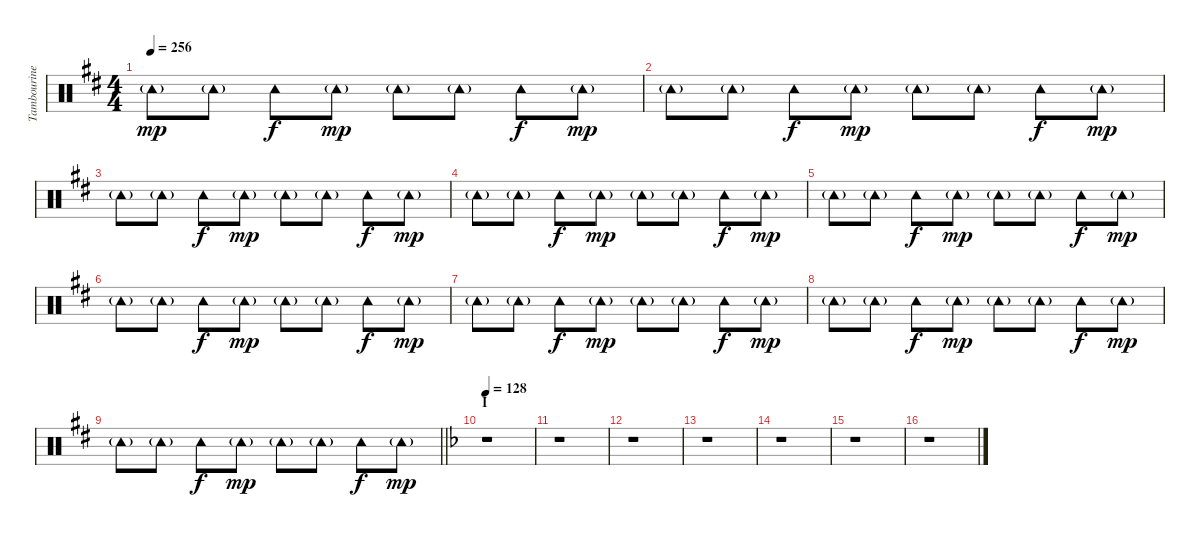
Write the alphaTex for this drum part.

\track ("Tambourine" "Tambourine") {instrument percussion}
\staff {score}
\articulation defaults
\ts (4 4)
\tempo 256
\clef neutral
\ks d "Tambourine (hit)"{g}.8{dy mp} "Tambourine (hit)"{g}.8 "Tambourine (hit)".8{dy f} "Tambourine (hit)"{g}.8{dy mp} "Tambourine (hit)"{g}.8 "Tambourine (hit)"{g}.8 "Tambourine (hit)".8{dy f} "Tambourine (hit)"{g}.8{dy mp}
|
"Tambourine (hit)"{g}.8 "Tambourine (hit)"{g}.8 "Tambourine (hit)".8{dy f} "Tambourine (hit)"{g}.8{dy mp} "Tambourine (hit)"{g}.8 "Tambourine (hit)"{g}.8 "Tambourine (hit)".8{dy f} "Tambourine (hit)"{g}.8{dy mp} |
"Tambourine (hit)"{g}.8 "Tambourine (hit)"{g}.8 "Tambourine (hit)".8{dy f} "Tambourine (hit)"{g}.8{dy mp} "Tambourine (hit)"{g}.8 "Tambourine (hit)"{g}.8 "Tambourine (hit)".8{dy f} "Tambourine (hit)"{g}.8{dy mp} |
"Tambourine (hit)"{g}.8 "Tambourine (hit)"{g}.8 "Tambourine (hit)".8{dy f} "Tambourine (hit)"{g}.8{dy mp} "Tambourine (hit)"{g}.8 "Tambourine (hit)"{g}.8 "Tambourine (hit)".8{dy f} "Tambourine (hit)"{g}.8{dy mp} |
"Tambourine (hit)"{g}.8 "Tambourine (hit)"{g}.8 "Tambourine (hit)".8{dy f} "Tambourine (hit)"{g}.8{dy mp} "Tambourine (hit)"{g}.8 "Tambourine (hit)"{g}.8 "Tambourine (hit)".8{dy f} "Tambourine (hit)"{g}.8{dy mp} |
"Tambourine (hit)"{g}.8 "Tambourine (hit)"{g}.8 "Tambourine (hit)".8{dy f} "Tambourine (hit)"{g}.8{dy mp} "Tambourine (hit)"{g}.8 "Tambourine (hit)"{g}.8 "Tambourine (hit)".8{dy f} "Tambourine (hit)"{g}.8{dy mp} |
"Tambourine (hit)"{g}.8 "Tambourine (hit)"{g}.8 "Tambourine (hit)".8{dy f} "Tambourine (hit)"{g}.8{dy mp} "Tambourine (hit)"{g}.8 "Tambourine (hit)"{g}.8 "Tambourine (hit)".8{dy f} "Tambourine (hit)"{g}.8{dy mp} |
"Tambourine (hit)"{g}.8 "Tambourine (hit)"{g}.8 "Tambourine (hit)".8{dy f} "Tambourine (hit)"{g}.8{dy mp} "Tambourine (hit)"{g}.8 "Tambourine (hit)"{g}.8 "Tambourine (hit)".8{dy f} "Tambourine (hit)"{g}.8{dy mp} |
\barLineRight lightlight "Tambourine (hit)"{g}.8 "Tambourine (hit)"{g}.8 "Tambourine (hit)".8{dy f} "Tambourine (hit)"{g}.8{dy mp} "Tambourine (hit)"{g}.8 "Tambourine (hit)"{g}.8 "Tambourine (hit)".8{dy f} "Tambourine (hit)"{g}.8{dy mp}
|
\section ("" "I")
\tempo 128
\ks f
r.1 |
r.1 |
r.1 |
r.1 |
r.1 |
r.1 |
r.1
